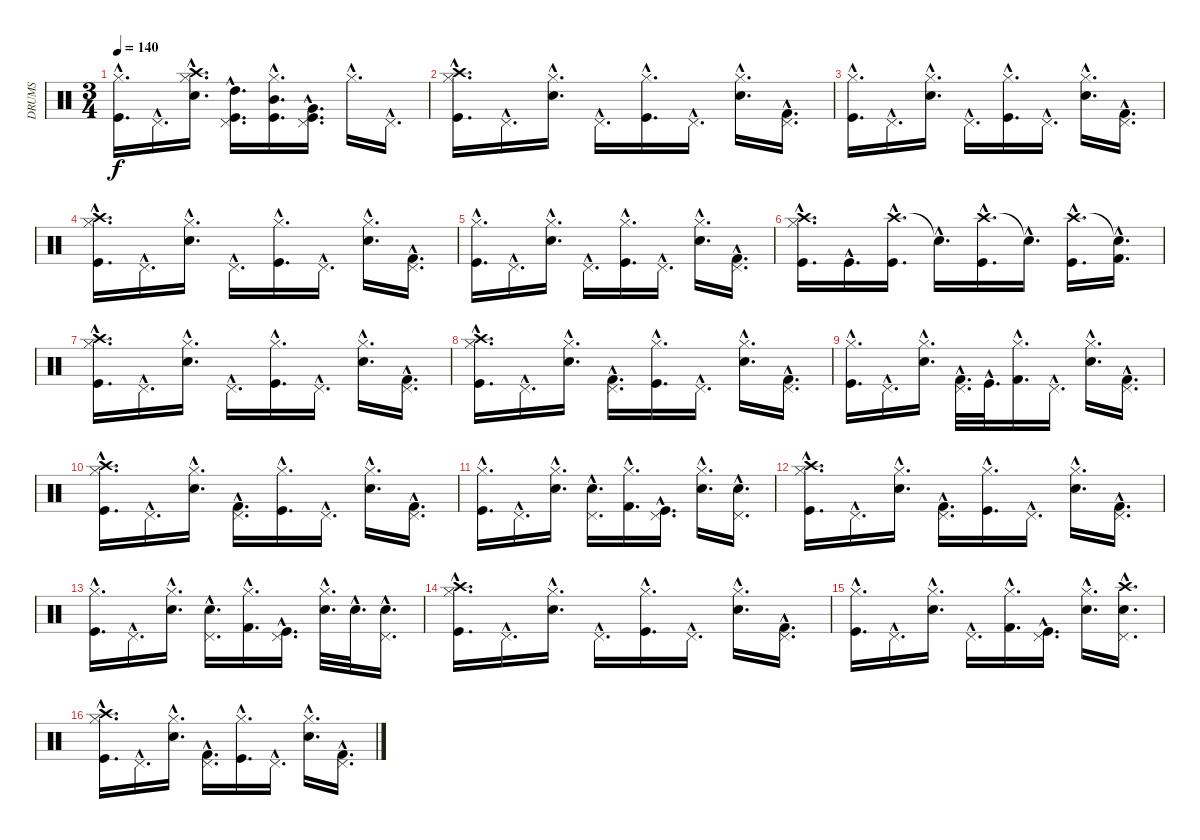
\track ("DRUMS" "DRUMS") {instrument percussion}
\staff {score}
\articulation defaults
\ts (3 4)
\tempo 140
\clef neutral
\ks c
("Hi-Hat (closed)"{hac} "Kick (hit)"{hac}).16{d dy f} "Pedal Hi-Hat (hit)"{hac}.16{d} ("Hi-Hat (closed)"{hac} "Crash high (hit)"{hac} "Electric Snare (hit)"{hac}).16{d} ("Pedal Hi-Hat (hit)"{hac} "High Tom (hit)"{hac} "Kick (hit)"{hac}).16{d} ("Hi-Hat (closed)"{hac} "Mid Tom (hit)"{hac} "Kick (hit)"{hac}).16{d} ("Pedal Hi-Hat (hit)"{hac} "Very Low Tom (hit)"{hac} "Kick (hit)"{hac}).16{d} "Hi-Hat (closed)"{hac}.16{d} "Pedal Hi-Hat (hit)"{hac}.16{d} |
("Hi-Hat (closed)"{hac} "Crash high (hit)"{hac} "Kick (hit)"{hac}).16{d} "Pedal Hi-Hat (hit)"{hac}.16{d} ("Hi-Hat (closed)"{hac} "Electric Snare (hit)"{hac}).16{d} "Pedal Hi-Hat (hit)"{hac}.16{d} ("Hi-Hat (closed)"{hac} "Kick (hit)"{hac}).16{d} "Pedal Hi-Hat (hit)"{hac}.16{d} ("Hi-Hat (closed)"{hac} "Electric Snare (hit)"{hac}).16{d} ("Pedal Hi-Hat (hit)"{hac} "Kick (hit) 2"{hac}).16{d} |
("Hi-Hat (closed)"{hac} "Kick (hit)"{hac}).16{d} "Pedal Hi-Hat (hit)"{hac}.16{d} ("Hi-Hat (closed)"{hac} "Electric Snare (hit)"{hac}).16{d} "Pedal Hi-Hat (hit)"{hac}.16{d} ("Hi-Hat (closed)"{hac} "Kick (hit)"{hac}).16{d} "Pedal Hi-Hat (hit)"{hac}.16{d} ("Hi-Hat (closed)"{hac} "Electric Snare (hit)"{hac}).16{d} ("Pedal Hi-Hat (hit)"{hac} "Kick (hit) 2"{hac}).16{d} |
("Hi-Hat (closed)"{hac} "Crash high (hit)"{hac} "Kick (hit)"{hac}).16{d} "Pedal Hi-Hat (hit)"{hac}.16{d} ("Hi-Hat (closed)"{hac} "Electric Snare (hit)"{hac}).16{d} "Pedal Hi-Hat (hit)"{hac}.16{d} ("Hi-Hat (closed)"{hac} "Kick (hit)"{hac}).16{d} "Pedal Hi-Hat (hit)"{hac}.16{d} ("Hi-Hat (closed)"{hac} "Electric Snare (hit)"{hac}).16{d} ("Pedal Hi-Hat (hit)"{hac} "Kick (hit) 2"{hac}).16{d} |
("Hi-Hat (closed)"{hac} "Kick (hit)"{hac}).16{d} "Pedal Hi-Hat (hit)"{hac}.16{d} ("Hi-Hat (closed)"{hac} "Electric Snare (hit)"{hac}).16{d} "Pedal Hi-Hat (hit)"{hac}.16{d} ("Hi-Hat (closed)"{hac} "Kick (hit)"{hac}).16{d} "Pedal Hi-Hat (hit)"{hac}.16{d} ("Hi-Hat (closed)"{hac} "Electric Snare (hit)"{hac}).16{d} ("Pedal Hi-Hat (hit)"{hac} "Kick (hit) 2"{hac}).16{d} |
("Hi-Hat (closed)"{hac} "Crash high (hit)"{hac} "Kick (hit)"{hac}).16{d} "Kick (hit)"{hac}.16{d} ("Crash high (hit)"{hac} "Kick (hit)"{hac}).16{d} "Snare (hit)"{hac t}.16{d} ("Crash high (hit)"{hac} "Kick (hit)"{hac}).16{d} "Snare (hit)"{hac t}.16{d} ("Crash high (hit)"{hac} "Kick (hit)"{hac}).16{d} ("Snare (hit)"{hac t} "Kick (hit) 2"{hac}).16{d} |
("Hi-Hat (closed)"{hac} "Crash high (hit)"{hac} "Kick (hit)"{hac}).16{d} "Pedal Hi-Hat (hit)"{hac}.16{d} ("Hi-Hat (closed)"{hac} "Electric Snare (hit)"{hac}).16{d} "Pedal Hi-Hat (hit)"{hac}.16{d} ("Hi-Hat (closed)"{hac} "Kick (hit)"{hac}).16{d} "Pedal Hi-Hat (hit)"{hac}.16{d} ("Hi-Hat (closed)"{hac} "Electric Snare (hit)"{hac}).16{d} ("Pedal Hi-Hat (hit)"{hac} "Kick (hit) 2"{hac}).16{d} |
("Hi-Hat (closed)"{hac} "Crash high (hit)"{hac} "Kick (hit)"{hac}).16{d} "Pedal Hi-Hat (hit)"{hac}.16{d} ("Hi-Hat (closed)"{hac} "Electric Snare (hit)"{hac}).16{d} ("Pedal Hi-Hat (hit)"{hac} "Kick (hit) 2"{hac}).16{d} ("Hi-Hat (closed)"{hac} "Kick (hit)"{hac}).16{d} "Pedal Hi-Hat (hit)"{hac}.16{d} ("Hi-Hat (closed)"{hac} "Electric Snare (hit)"{hac}).16{d} ("Pedal Hi-Hat (hit)"{hac} "Kick (hit) 2"{hac}).16{d} |
("Hi-Hat (closed)"{hac} "Kick (hit)"{hac}).16{d} "Pedal Hi-Hat (hit)"{hac}.16{d} ("Hi-Hat (closed)"{hac} "Electric Snare (hit)"{hac}).16{d} ("Pedal Hi-Hat (hit)"{hac} "Kick (hit) 2"{hac}).32{d} "Kick (hit)"{hac}.32{d} ("Hi-Hat (closed)"{hac} "Kick (hit) 2"{hac}).16{d} "Pedal Hi-Hat (hit)"{hac}.16{d} ("Hi-Hat (closed)"{hac} "Electric Snare (hit)"{hac}).16{d} ("Pedal Hi-Hat (hit)"{hac} "Kick (hit) 2"{hac}).16{d} |
("Hi-Hat (closed)"{hac} "Crash high (hit)"{hac} "Kick (hit)"{hac}).16{d} "Pedal Hi-Hat (hit)"{hac}.16{d} ("Hi-Hat (closed)"{hac} "Electric Snare (hit)"{hac}).16{d} ("Pedal Hi-Hat (hit)"{hac} "Kick (hit) 2"{hac}).16{d} ("Hi-Hat (closed)"{hac} "Kick (hit)"{hac}).16{d} "Pedal Hi-Hat (hit)"{hac}.16{d} ("Hi-Hat (closed)"{hac} "Electric Snare (hit)"{hac}).16{d} ("Pedal Hi-Hat (hit)"{hac} "Kick (hit) 2"{hac}).16{d} |
("Hi-Hat (closed)"{hac} "Kick (hit)"{hac}).16{d} "Pedal Hi-Hat (hit)"{hac}.16{d} ("Hi-Hat (closed)"{hac} "Electric Snare (hit)"{hac}).16{d} ("Pedal Hi-Hat (hit)"{hac} "Electric Snare (hit)"{hac}).16{d} ("Hi-Hat (closed)"{hac} "Kick (hit) 2"{hac}).16{d} ("Pedal Hi-Hat (hit)"{hac} "Kick (hit)"{hac}).16{d} ("Hi-Hat (closed)"{hac} "Electric Snare (hit)"{hac}).16{d} ("Pedal Hi-Hat (hit)"{hac} "Electric Snare (hit)"{hac}).16{d} |
("Hi-Hat (closed)"{hac} "Crash high (hit)"{hac} "Kick (hit)"{hac}).16{d} "Pedal Hi-Hat (hit)"{hac}.16{d} ("Hi-Hat (closed)"{hac} "Electric Snare (hit)"{hac}).16{d} ("Pedal Hi-Hat (hit)"{hac} "Kick (hit) 2"{hac}).16{d} ("Hi-Hat (closed)"{hac} "Kick (hit)"{hac}).16{d} "Pedal Hi-Hat (hit)"{hac}.16{d} ("Hi-Hat (closed)"{hac} "Electric Snare (hit)"{hac}).16{d} ("Pedal Hi-Hat (hit)"{hac} "Kick (hit) 2"{hac}).16{d} |
("Hi-Hat (closed)"{hac} "Kick (hit)"{hac}).16{d} "Pedal Hi-Hat (hit)"{hac}.16{d} ("Hi-Hat (closed)"{hac} "Electric Snare (hit)"{hac}).16{d} ("Pedal Hi-Hat (hit)"{hac} "Electric Snare (hit)"{hac}).16{d} ("Hi-Hat (closed)"{hac} "Kick (hit) 2"{hac}).16{d} ("Pedal Hi-Hat (hit)"{hac} "Kick (hit)"{hac}).16{d} ("Hi-Hat (closed)"{hac} "Electric Snare (hit)"{hac}).32{d} "Electric Snare (hit)"{hac}.32{d} ("Pedal Hi-Hat (hit)"{hac} "Electric Snare (hit)"{hac}).16{d} |
("Hi-Hat (closed)"{hac} "Crash high (hit)"{hac} "Kick (hit)"{hac}).16{d} "Pedal Hi-Hat (hit)"{hac}.16{d} ("Hi-Hat (closed)"{hac} "Electric Snare (hit)"{hac}).16{d} "Pedal Hi-Hat (hit)"{hac}.16{d} ("Hi-Hat (closed)"{hac} "Kick (hit)"{hac}).16{d} "Pedal Hi-Hat (hit)"{hac}.16{d} ("Hi-Hat (closed)"{hac} "Electric Snare (hit)"{hac}).16{d} ("Pedal Hi-Hat (hit)"{hac} "Kick (hit) 2"{hac}).16{d} |
("Hi-Hat (closed)"{hac} "Kick (hit)"{hac}).16{d} "Pedal Hi-Hat (hit)"{hac}.16{d} ("Hi-Hat (closed)"{hac} "Electric Snare (hit)"{hac}).16{d} "Pedal Hi-Hat (hit)"{hac}.16{d} ("Hi-Hat (closed)"{hac} "Kick (hit) 2"{hac}).16{d} ("Pedal Hi-Hat (hit)"{hac} "Kick (hit)"{hac}).16{d} ("Hi-Hat (closed)"{hac} "Electric Snare (hit)"{hac}).16{d} ("Pedal Hi-Hat (hit)"{hac} "Crash high (hit)"{hac} "Electric Snare (hit)"{hac}).16{d} |
("Hi-Hat (closed)"{hac} "Crash high (hit)"{hac} "Kick (hit)"{hac}).16{d} "Pedal Hi-Hat (hit)"{hac}.16{d} ("Hi-Hat (closed)"{hac} "Electric Snare (hit)"{hac}).16{d} ("Pedal Hi-Hat (hit)"{hac} "Kick (hit) 2"{hac}).16{d} ("Hi-Hat (closed)"{hac} "Kick (hit)"{hac}).16{d} "Pedal Hi-Hat (hit)"{hac}.16{d} ("Hi-Hat (closed)"{hac} "Electric Snare (hit)"{hac}).16{d} ("Pedal Hi-Hat (hit)"{hac} "Kick (hit) 2"{hac}).16{d}
